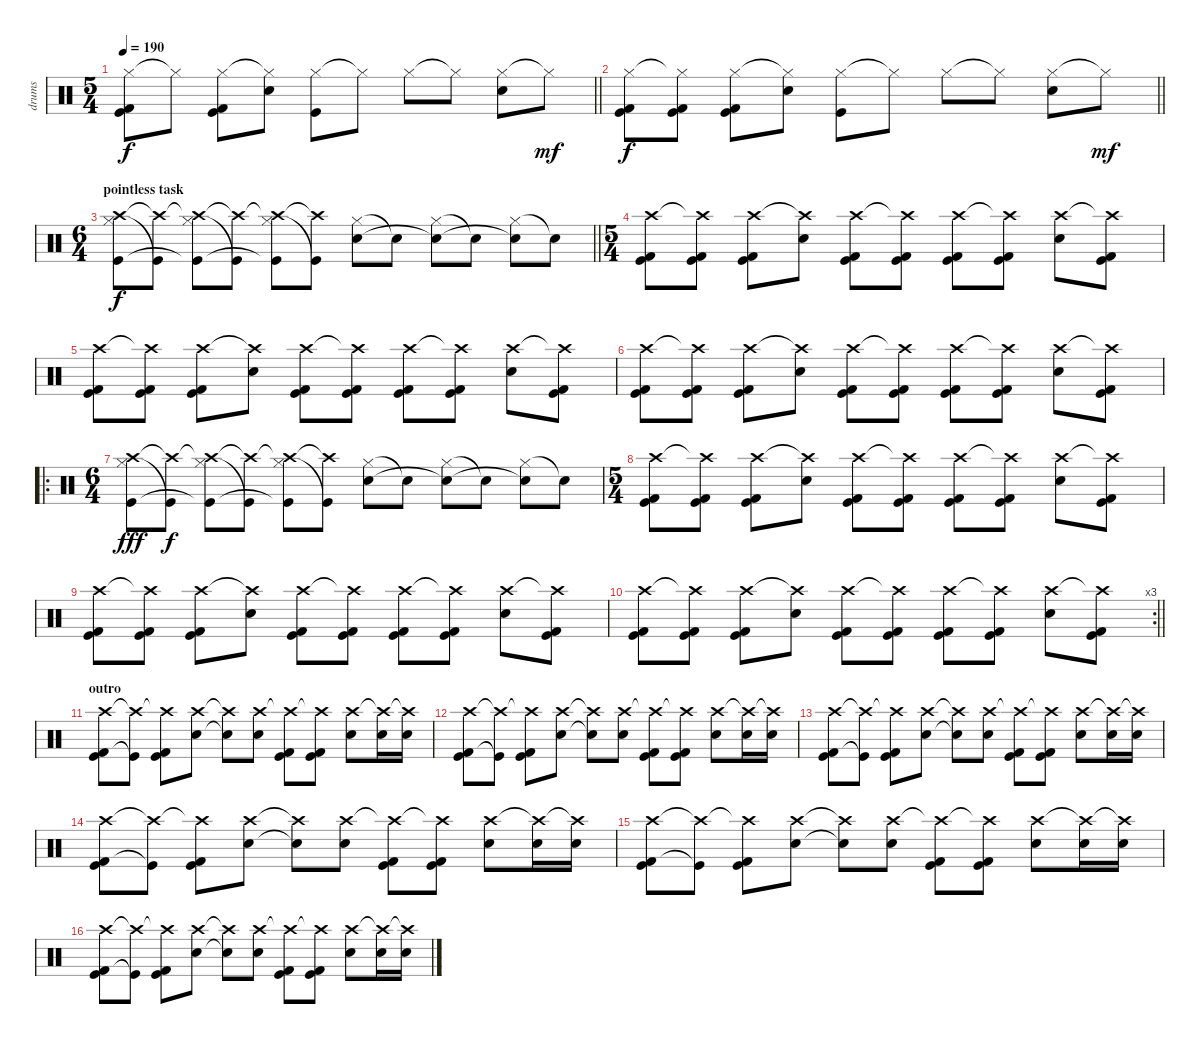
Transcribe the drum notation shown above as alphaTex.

\track ("drums" "drums") {instrument percussion}
\staff {score}
\articulation defaults
\ts (5 4)
\tempo 190
\clef neutral
\barLineRight lightlight
\ks c
("Hi-Hat (closed)" "Kick (hit) 2" "Kick (hit)").8{dy f} "Hi-Hat (closed)"{t}.8 ("Hi-Hat (closed)" "Kick (hit) 2" "Kick (hit)").8 ("Hi-Hat (closed)"{t} "Electric Snare (hit)").8 ("Hi-Hat (closed)" "Kick (hit)").8 "Hi-Hat (closed)"{t}.8 "Hi-Hat (closed)".8 "Hi-Hat (closed)"{t}.8 ("Hi-Hat (closed)" "Electric Snare (hit)").8 "Hi-Hat (closed)"{t}.8{dy mf} |
\barLineRight lightlight
("Hi-Hat (closed)" "Kick (hit) 2" "Kick (hit)").8{dy f} ("Hi-Hat (closed)"{t} "Kick (hit) 2" "Kick (hit)").8 ("Hi-Hat (closed)" "Kick (hit) 2" "Kick (hit)").8 ("Hi-Hat (closed)"{t} "Electric Snare (hit)").8 ("Hi-Hat (closed)" "Kick (hit)").8 "Hi-Hat (closed)"{t}.8 "Hi-Hat (closed)".8 "Hi-Hat (closed)"{t}.8 ("Hi-Hat (closed)" "Electric Snare (hit)").8 "Hi-Hat (closed)"{t}.8{dy mf} |
\ts (6 4)
\section ("" "pointless task")
\barLineRight lightlight
("Crash high (hit)" "Hi-Hat (closed)" "Kick (hit)").8{dy f} ("Crash high (hit)"{t} "Kick (hit)"{t}).8 ("Crash high (hit)"{t} "Hi-Hat (closed)" "Kick (hit)"{t}).8 ("Crash high (hit)"{t} "Kick (hit)"{t}).8 ("Crash high (hit)"{t} "Hi-Hat (closed)" "Kick (hit)"{t}).8 ("Crash high (hit)"{t} "Kick (hit)"{t}).8 ("Hi-Hat (closed)" "Electric Snare (hit)").8 "Electric Snare (hit)"{t}.8 ("Hi-Hat (closed)" "Electric Snare (hit)"{t}).8 "Electric Snare (hit)"{t}.8 ("Hi-Hat (closed)" "Electric Snare (hit)"{t}).8 "Electric Snare (hit)"{t}.8 |
\ts (5 4)
("Crash high (hit)" "Kick (hit) 2" "Kick (hit)").8 ("Crash high (hit)"{t} "Kick (hit) 2" "Kick (hit)").8 ("Crash high (hit)" "Kick (hit) 2" "Kick (hit)").8 ("Crash high (hit)"{t} "Electric Snare (hit)").8 ("Crash high (hit)" "Kick (hit) 2" "Kick (hit)").8 ("Crash high (hit)"{t} "Kick (hit) 2" "Kick (hit)").8 ("Crash high (hit)" "Kick (hit) 2" "Kick (hit)").8 ("Crash high (hit)"{t} "Kick (hit) 2" "Kick (hit)").8 ("Crash high (hit)" "Electric Snare (hit)").8 ("Crash high (hit)"{t} "Kick (hit) 2" "Kick (hit)").8 |
("Crash high (hit)" "Kick (hit) 2" "Kick (hit)").8 ("Crash high (hit)"{t} "Kick (hit) 2" "Kick (hit)").8 ("Crash high (hit)" "Kick (hit) 2" "Kick (hit)").8 ("Crash high (hit)"{t} "Electric Snare (hit)").8 ("Crash high (hit)" "Kick (hit) 2" "Kick (hit)").8 ("Crash high (hit)"{t} "Kick (hit) 2" "Kick (hit)").8 ("Crash high (hit)" "Kick (hit) 2" "Kick (hit)").8 ("Crash high (hit)"{t} "Kick (hit) 2" "Kick (hit)").8 ("Crash high (hit)" "Electric Snare (hit)").8 ("Crash high (hit)"{t} "Kick (hit) 2" "Kick (hit)").8 |
("Crash high (hit)" "Kick (hit) 2" "Kick (hit)").8 ("Crash high (hit)"{t} "Kick (hit) 2" "Kick (hit)").8 ("Crash high (hit)" "Kick (hit) 2" "Kick (hit)").8 ("Crash high (hit)"{t} "Electric Snare (hit)").8 ("Crash high (hit)" "Kick (hit) 2" "Kick (hit)").8 ("Crash high (hit)"{t} "Kick (hit) 2" "Kick (hit)").8 ("Crash high (hit)" "Kick (hit) 2" "Kick (hit)").8 ("Crash high (hit)"{t} "Kick (hit) 2" "Kick (hit)").8 ("Crash high (hit)" "Electric Snare (hit)").8 ("Crash high (hit)"{t} "Kick (hit) 2" "Kick (hit)").8 |
\ro
\ts (6 4)
("Crash high (hit)" "Hi-Hat (closed)" "Kick (hit)").8{dy fff} ("Crash high (hit)"{t} "Kick (hit)"{t}).8{dy f} ("Crash high (hit)"{t} "Hi-Hat (closed)" "Kick (hit)"{t}).8 ("Crash high (hit)"{t} "Kick (hit)"{t}).8 ("Crash high (hit)"{t} "Hi-Hat (closed)" "Kick (hit)"{t}).8 ("Crash high (hit)"{t} "Kick (hit)"{t}).8 ("Hi-Hat (closed)" "Electric Snare (hit)").8 "Electric Snare (hit)"{t}.8 ("Hi-Hat (closed)" "Electric Snare (hit)"{t}).8 "Electric Snare (hit)"{t}.8 ("Hi-Hat (closed)" "Electric Snare (hit)"{t}).8 "Electric Snare (hit)"{t}.8 |
\ts (5 4)
("Crash high (hit)" "Kick (hit) 2" "Kick (hit)").8 ("Crash high (hit)"{t} "Kick (hit) 2" "Kick (hit)").8 ("Crash high (hit)" "Kick (hit) 2" "Kick (hit)").8 ("Crash high (hit)"{t} "Electric Snare (hit)").8 ("Crash high (hit)" "Kick (hit) 2" "Kick (hit)").8 ("Crash high (hit)"{t} "Kick (hit) 2" "Kick (hit)").8 ("Crash high (hit)" "Kick (hit) 2" "Kick (hit)").8 ("Crash high (hit)"{t} "Kick (hit) 2" "Kick (hit)").8 ("Crash high (hit)" "Electric Snare (hit)").8 ("Crash high (hit)"{t} "Kick (hit) 2" "Kick (hit)").8 |
("Crash high (hit)" "Kick (hit) 2" "Kick (hit)").8 ("Crash high (hit)"{t} "Kick (hit) 2" "Kick (hit)").8 ("Crash high (hit)" "Kick (hit) 2" "Kick (hit)").8 ("Crash high (hit)"{t} "Electric Snare (hit)").8 ("Crash high (hit)" "Kick (hit) 2" "Kick (hit)").8 ("Crash high (hit)"{t} "Kick (hit) 2" "Kick (hit)").8 ("Crash high (hit)" "Kick (hit) 2" "Kick (hit)").8 ("Crash high (hit)"{t} "Kick (hit) 2" "Kick (hit)").8 ("Crash high (hit)" "Electric Snare (hit)").8 ("Crash high (hit)"{t} "Kick (hit) 2" "Kick (hit)").8 |
\rc 3
\barLineRight lightlight
("Crash high (hit)" "Kick (hit) 2" "Kick (hit)").8 ("Crash high (hit)"{t} "Kick (hit) 2" "Kick (hit)").8 ("Crash high (hit)" "Kick (hit) 2" "Kick (hit)").8 ("Crash high (hit)"{t} "Electric Snare (hit)").8 ("Crash high (hit)" "Kick (hit) 2" "Kick (hit)").8 ("Crash high (hit)"{t} "Kick (hit) 2" "Kick (hit)").8 ("Crash high (hit)" "Kick (hit) 2" "Kick (hit)").8 ("Crash high (hit)"{t} "Kick (hit) 2" "Kick (hit)").8 ("Crash high (hit)" "Electric Snare (hit)").8 ("Crash high (hit)"{t} "Kick (hit) 2" "Kick (hit)").8 |
\section ("" "outro")
("Crash high (hit)" "Kick (hit) 2" "Kick (hit)").8 ("Crash high (hit)"{t} "Kick (hit)"{t}).8 ("Crash high (hit)"{t} "Kick (hit) 2" "Kick (hit)").8 ("Crash high (hit)" "Electric Snare (hit)").8 ("Crash high (hit)"{t} "Electric Snare (hit)"{t}).8 ("Crash high (hit)" "Electric Snare (hit)").8 ("Crash high (hit)"{t} "Kick (hit) 2" "Kick (hit)").8 ("Crash high (hit)"{t} "Kick (hit) 2" "Kick (hit)").8 ("Crash high (hit)" "Electric Snare (hit)").8 ("Crash high (hit)"{t} "Electric Snare (hit)").16 ("Crash high (hit)"{t} "Electric Snare (hit)").16 |
("Crash high (hit)" "Kick (hit) 2" "Kick (hit)").8 ("Crash high (hit)"{t} "Kick (hit)"{t}).8 ("Crash high (hit)"{t} "Kick (hit) 2" "Kick (hit)").8 ("Crash high (hit)" "Electric Snare (hit)").8 ("Crash high (hit)"{t} "Electric Snare (hit)"{t}).8 ("Crash high (hit)" "Electric Snare (hit)").8 ("Crash high (hit)"{t} "Kick (hit) 2" "Kick (hit)").8 ("Crash high (hit)"{t} "Kick (hit) 2" "Kick (hit)").8 ("Crash high (hit)" "Electric Snare (hit)").8 ("Crash high (hit)"{t} "Electric Snare (hit)").16 ("Crash high (hit)"{t} "Electric Snare (hit)").16 |
("Crash high (hit)" "Kick (hit) 2" "Kick (hit)").8 ("Crash high (hit)"{t} "Kick (hit)"{t}).8 ("Crash high (hit)"{t} "Kick (hit) 2" "Kick (hit)").8 ("Crash high (hit)" "Electric Snare (hit)").8 ("Crash high (hit)"{t} "Electric Snare (hit)"{t}).8 ("Crash high (hit)" "Electric Snare (hit)").8 ("Crash high (hit)"{t} "Kick (hit) 2" "Kick (hit)").8 ("Crash high (hit)"{t} "Kick (hit) 2" "Kick (hit)").8 ("Crash high (hit)" "Electric Snare (hit)").8 ("Crash high (hit)"{t} "Electric Snare (hit)").16 ("Crash high (hit)"{t} "Electric Snare (hit)").16 |
("Crash high (hit)" "Kick (hit) 2" "Kick (hit)").8 ("Crash high (hit)"{t} "Kick (hit)"{t}).8 ("Crash high (hit)"{t} "Kick (hit) 2" "Kick (hit)").8 ("Crash high (hit)" "Electric Snare (hit)").8 ("Crash high (hit)"{t} "Electric Snare (hit)"{t}).8 ("Crash high (hit)" "Electric Snare (hit)").8 ("Crash high (hit)"{t} "Kick (hit) 2" "Kick (hit)").8 ("Crash high (hit)"{t} "Kick (hit) 2" "Kick (hit)").8 ("Crash high (hit)" "Electric Snare (hit)").8 ("Crash high (hit)"{t} "Electric Snare (hit)").16 ("Crash high (hit)"{t} "Electric Snare (hit)").16 |
("Crash high (hit)" "Kick (hit) 2" "Kick (hit)").8 ("Crash high (hit)"{t} "Kick (hit)"{t}).8 ("Crash high (hit)"{t} "Kick (hit) 2" "Kick (hit)").8 ("Crash high (hit)" "Electric Snare (hit)").8 ("Crash high (hit)"{t} "Electric Snare (hit)"{t}).8 ("Crash high (hit)" "Electric Snare (hit)").8 ("Crash high (hit)"{t} "Kick (hit) 2" "Kick (hit)").8 ("Crash high (hit)"{t} "Kick (hit) 2" "Kick (hit)").8 ("Crash high (hit)" "Electric Snare (hit)").8 ("Crash high (hit)"{t} "Electric Snare (hit)").16 ("Crash high (hit)"{t} "Electric Snare (hit)").16 |
("Crash high (hit)" "Kick (hit) 2" "Kick (hit)").8 ("Crash high (hit)"{t} "Kick (hit)"{t}).8 ("Crash high (hit)"{t} "Kick (hit) 2" "Kick (hit)").8 ("Crash high (hit)" "Electric Snare (hit)").8 ("Crash high (hit)"{t} "Electric Snare (hit)"{t}).8 ("Crash high (hit)" "Electric Snare (hit)").8 ("Crash high (hit)"{t} "Kick (hit) 2" "Kick (hit)").8 ("Crash high (hit)"{t} "Kick (hit) 2" "Kick (hit)").8 ("Crash high (hit)" "Electric Snare (hit)").8 ("Crash high (hit)"{t} "Electric Snare (hit)").16 ("Crash high (hit)"{t} "Electric Snare (hit)").16
